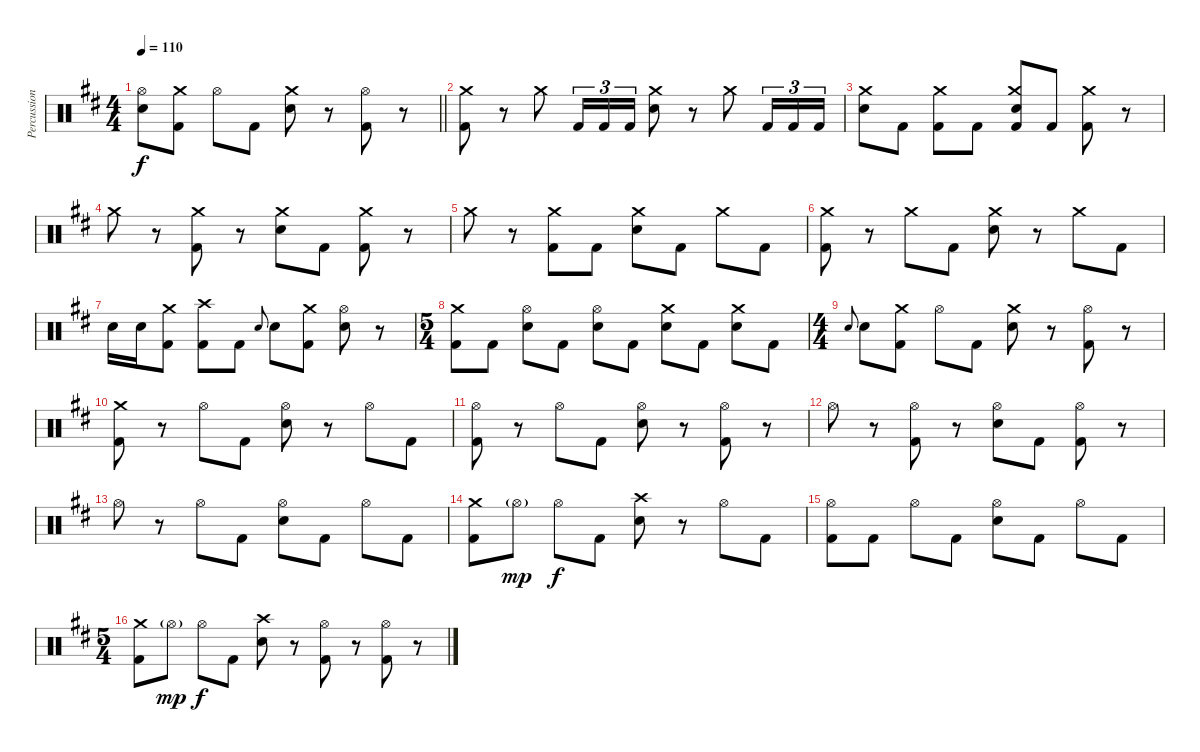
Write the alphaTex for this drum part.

\track ("Percussion" "Percussion") {instrument percussion}
\staff {score}
\articulation defaults
\ts (4 4)
\tempo 110
\clef neutral
\barLineRight lightlight
\ks bminor
("Hi-Hat (open)" "Snare (hit) 2").8{dy f} ("Crash medium (hit)" "Kick (hit) 2").8 "Hi-Hat (open)".8 "Kick (hit) 2".8 ("Crash medium (hit)" "Snare (hit) 2").8 r.8 ("Hi-Hat (open)" "Kick (hit) 2").8 r.8 |
\section ("" "")
("Crash medium (hit)" "Kick (hit) 2").8 r.8 "Crash medium (hit)".8 "Kick (hit) 2".16{tu (3 2)} "Kick (hit) 2".16{tu (3 2)} "Kick (hit) 2".16{tu (3 2)} ("Crash medium (hit)" "Snare (hit) 2").8 r.8 "Crash medium (hit)".8 "Kick (hit) 2".16{tu (3 2)} "Kick (hit) 2".16{tu (3 2)} "Kick (hit) 2".16{tu (3 2)} |
("Crash medium (hit)" "Snare (hit) 2").8 "Kick (hit) 2".8 ("Crash medium (hit)" "Kick (hit) 2").8 "Kick (hit) 2".8 ("Crash medium (hit)" "Snare (hit) 2" "Kick (hit) 2").8 "Kick (hit) 2".8 ("Crash medium (hit)" "Kick (hit) 2").8 r.8 |
"Crash medium (hit)".8 r.8 ("Crash medium (hit)" "Kick (hit) 2").8 r.8 ("Crash medium (hit)" "Snare (hit) 2").8 "Kick (hit) 2".8 ("Crash medium (hit)" "Kick (hit) 2").8 r.8 |
"Crash medium (hit)".8 r.8 ("Crash medium (hit)" "Kick (hit) 2").8 "Kick (hit) 2".8 ("Crash medium (hit)" "Snare (hit) 2").8 "Kick (hit) 2".8 "Crash medium (hit)".8 "Kick (hit) 2".8 |
("Crash medium (hit)" "Kick (hit) 2").8 r.8 "Crash medium (hit)".8 "Kick (hit) 2".8 ("Crash medium (hit)" "Snare (hit) 2").8 r.8 "Crash medium (hit)".8 "Kick (hit) 2".8 |
"Snare (hit) 2".16 "Snare (hit) 2".16 ("Crash medium (hit)" "Kick (hit) 2").8 ("Crash high (hit)" "Kick (hit) 2").8 "Kick (hit) 2".8 "Snare (hit) 2".8{gr onbeat} "Snare (hit) 2".8 ("Crash medium (hit)" "Kick (hit) 2").8 ("Hi-Hat (open)" "Snare (hit) 2").8 r.8 |
\ts (5 4)
("Crash medium (hit)" "Kick (hit) 2").8 "Kick (hit) 2".8 ("Hi-Hat (open)" "Snare (hit) 2").8 "Kick (hit) 2".8 ("Hi-Hat (open)" "Snare (hit) 2").8 "Kick (hit) 2".8 ("Crash medium (hit)" "Snare (hit) 2").8 "Kick (hit) 2".8 ("Crash medium (hit)" "Snare (hit) 2").8 "Kick (hit) 2".8 |
\ts (4 4)
"Snare (hit) 2".8{gr onbeat} "Snare (hit) 2".8 ("Crash medium (hit)" "Kick (hit) 2").8 "Hi-Hat (open)".8 "Kick (hit) 2".8 ("Crash medium (hit)" "Snare (hit) 2").8 r.8 ("Hi-Hat (open)" "Kick (hit) 2").8 r.8 |
("Crash medium (hit)" "Kick (hit) 2").8 r.8 "Hi-Hat (open)".8 "Kick (hit) 2".8 ("Hi-Hat (open)" "Snare (hit) 2").8 r.8 "Hi-Hat (open)".8 "Kick (hit) 2".8 |
("Hi-Hat (open)" "Kick (hit) 2").8 r.8 "Hi-Hat (open)".8 "Kick (hit) 2".8 ("Hi-Hat (open)" "Snare (hit) 2").8 r.8 ("Hi-Hat (open)" "Kick (hit) 2").8 r.8 |
"Hi-Hat (open)".8 r.8 ("Hi-Hat (open)" "Kick (hit) 2").8 r.8 ("Hi-Hat (open)" "Snare (hit) 2").8 "Kick (hit) 2".8 ("Hi-Hat (open)" "Kick (hit) 2").8 r.8 |
"Hi-Hat (open)".8 r.8 "Hi-Hat (open)".8 "Kick (hit) 2".8 ("Hi-Hat (open)" "Snare (hit) 2").8 "Kick (hit) 2".8 "Hi-Hat (open)".8 "Kick (hit) 2".8 |
("Crash medium (hit)" "Kick (hit) 2").8 "Hi-Hat (open)"{g}.8{dy mp} "Hi-Hat (open)".8{dy f} "Kick (hit) 2".8 ("Crash high (hit)" "Snare (hit) 2").8 r.8 "Hi-Hat (open)".8 "Kick (hit) 2".8 |
("Hi-Hat (open)" "Kick (hit) 2").8 "Kick (hit) 2".8 "Hi-Hat (open)".8 "Kick (hit) 2".8 ("Hi-Hat (open)" "Snare (hit) 2").8 "Kick (hit) 2".8 "Hi-Hat (open)".8 "Kick (hit) 2".8 |
\ts (5 4)
("Crash medium (hit)" "Kick (hit) 2").8 "Hi-Hat (open)"{g}.8{dy mp} "Hi-Hat (open)".8{dy f} "Kick (hit) 2".8 ("Crash high (hit)" "Snare (hit) 2").8 r.8 ("Hi-Hat (open)" "Kick (hit) 2").8 r.8 ("Hi-Hat (open)" "Kick (hit) 2").8 r.8
